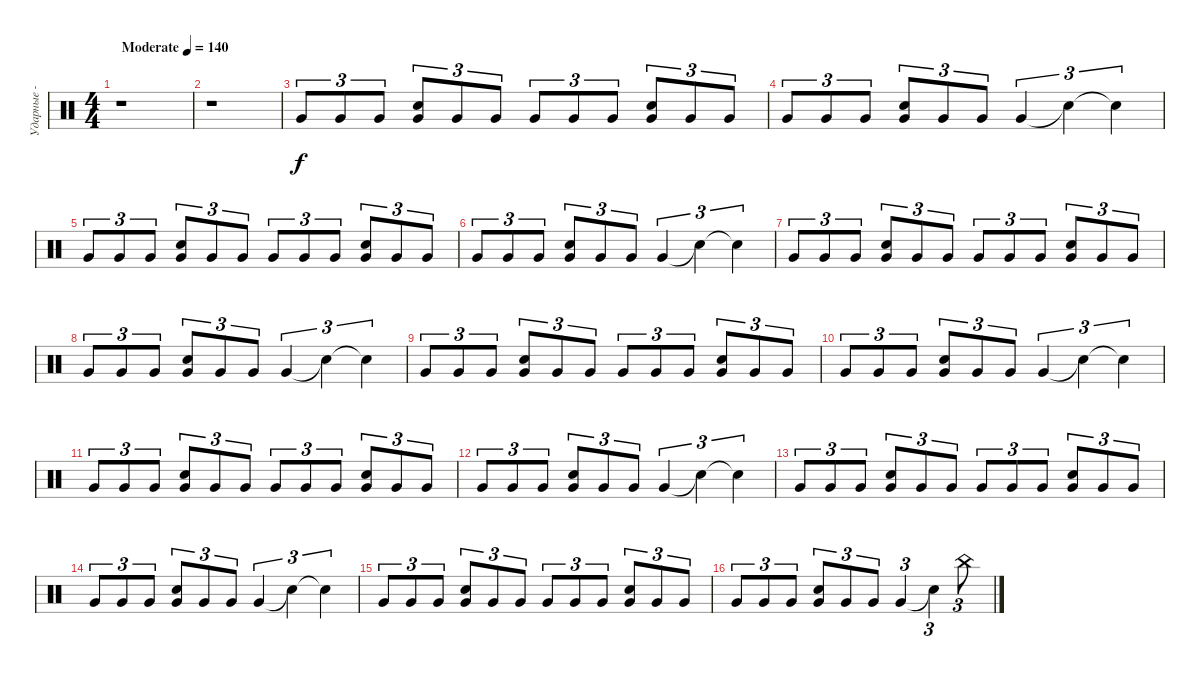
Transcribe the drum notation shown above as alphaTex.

\track ("Ударные - Ваня" "Ударные - ") {instrument percussion}
\staff {score}
\articulation defaults
\ts (4 4)
\tempo (140 "Moderate")
\clef neutral
\ks c
r.1{dy f} |
r.1 |
"Very Low Tom (hit)".8{tu (3 2)} "Very Low Tom (hit)".8{tu (3 2)} "Very Low Tom (hit)".8{tu (3 2)} ("Very Low Tom (hit)" "Snare (hit) 2").8{tu (3 2)} "Very Low Tom (hit)".8{tu (3 2)} "Very Low Tom (hit)".8{tu (3 2)} "Very Low Tom (hit)".8{tu (3 2)} "Very Low Tom (hit)".8{tu (3 2)} "Very Low Tom (hit)".8{tu (3 2)} ("Very Low Tom (hit)" "Snare (hit) 2").8{tu (3 2)} "Very Low Tom (hit)".8{tu (3 2)} "Very Low Tom (hit)".8{tu (3 2)} |
"Very Low Tom (hit)".8{tu (3 2)} "Very Low Tom (hit)".8{tu (3 2)} "Very Low Tom (hit)".8{tu (3 2)} ("Very Low Tom (hit)" "Snare (hit) 2").8{tu (3 2)} "Very Low Tom (hit)".8{tu (3 2)} "Very Low Tom (hit)".8{tu (3 2)} "Very Low Tom (hit)".4{tu (3 2)} "Snare (hit)"{t}.4{tu (3 2)} "Snare (hit)"{t}.4{tu (3 2)} |
"Very Low Tom (hit)".8{tu (3 2)} "Very Low Tom (hit)".8{tu (3 2)} "Very Low Tom (hit)".8{tu (3 2)} ("Very Low Tom (hit)" "Snare (hit) 2").8{tu (3 2)} "Very Low Tom (hit)".8{tu (3 2)} "Very Low Tom (hit)".8{tu (3 2)} "Very Low Tom (hit)".8{tu (3 2)} "Very Low Tom (hit)".8{tu (3 2)} "Very Low Tom (hit)".8{tu (3 2)} ("Very Low Tom (hit)" "Snare (hit) 2").8{tu (3 2)} "Very Low Tom (hit)".8{tu (3 2)} "Very Low Tom (hit)".8{tu (3 2)} |
"Very Low Tom (hit)".8{tu (3 2)} "Very Low Tom (hit)".8{tu (3 2)} "Very Low Tom (hit)".8{tu (3 2)} ("Very Low Tom (hit)" "Snare (hit) 2").8{tu (3 2)} "Very Low Tom (hit)".8{tu (3 2)} "Very Low Tom (hit)".8{tu (3 2)} "Very Low Tom (hit)".4{tu (3 2)} "Snare (hit)"{t}.4{tu (3 2)} "Snare (hit)"{t}.4{tu (3 2)} |
"Very Low Tom (hit)".8{tu (3 2)} "Very Low Tom (hit)".8{tu (3 2)} "Very Low Tom (hit)".8{tu (3 2)} ("Very Low Tom (hit)" "Snare (hit) 2").8{tu (3 2)} "Very Low Tom (hit)".8{tu (3 2)} "Very Low Tom (hit)".8{tu (3 2)} "Very Low Tom (hit)".8{tu (3 2)} "Very Low Tom (hit)".8{tu (3 2)} "Very Low Tom (hit)".8{tu (3 2)} ("Very Low Tom (hit)" "Snare (hit) 2").8{tu (3 2)} "Very Low Tom (hit)".8{tu (3 2)} "Very Low Tom (hit)".8{tu (3 2)} |
"Very Low Tom (hit)".8{tu (3 2)} "Very Low Tom (hit)".8{tu (3 2)} "Very Low Tom (hit)".8{tu (3 2)} ("Very Low Tom (hit)" "Snare (hit) 2").8{tu (3 2)} "Very Low Tom (hit)".8{tu (3 2)} "Very Low Tom (hit)".8{tu (3 2)} "Very Low Tom (hit)".4{tu (3 2)} "Snare (hit)"{t}.4{tu (3 2)} "Snare (hit)"{t}.4{tu (3 2)} |
"Very Low Tom (hit)".8{tu (3 2)} "Very Low Tom (hit)".8{tu (3 2)} "Very Low Tom (hit)".8{tu (3 2)} ("Very Low Tom (hit)" "Snare (hit) 2").8{tu (3 2)} "Very Low Tom (hit)".8{tu (3 2)} "Very Low Tom (hit)".8{tu (3 2)} "Very Low Tom (hit)".8{tu (3 2)} "Very Low Tom (hit)".8{tu (3 2)} "Very Low Tom (hit)".8{tu (3 2)} ("Very Low Tom (hit)" "Snare (hit) 2").8{tu (3 2)} "Very Low Tom (hit)".8{tu (3 2)} "Very Low Tom (hit)".8{tu (3 2)} |
"Very Low Tom (hit)".8{tu (3 2)} "Very Low Tom (hit)".8{tu (3 2)} "Very Low Tom (hit)".8{tu (3 2)} ("Very Low Tom (hit)" "Snare (hit) 2").8{tu (3 2)} "Very Low Tom (hit)".8{tu (3 2)} "Very Low Tom (hit)".8{tu (3 2)} "Very Low Tom (hit)".4{tu (3 2)} "Snare (hit)"{t}.4{tu (3 2)} "Snare (hit)"{t}.4{tu (3 2)} |
"Very Low Tom (hit)".8{tu (3 2)} "Very Low Tom (hit)".8{tu (3 2)} "Very Low Tom (hit)".8{tu (3 2)} ("Very Low Tom (hit)" "Snare (hit) 2").8{tu (3 2)} "Very Low Tom (hit)".8{tu (3 2)} "Very Low Tom (hit)".8{tu (3 2)} "Very Low Tom (hit)".8{tu (3 2)} "Very Low Tom (hit)".8{tu (3 2)} "Very Low Tom (hit)".8{tu (3 2)} ("Very Low Tom (hit)" "Snare (hit) 2").8{tu (3 2)} "Very Low Tom (hit)".8{tu (3 2)} "Very Low Tom (hit)".8{tu (3 2)} |
"Very Low Tom (hit)".8{tu (3 2)} "Very Low Tom (hit)".8{tu (3 2)} "Very Low Tom (hit)".8{tu (3 2)} ("Very Low Tom (hit)" "Snare (hit) 2").8{tu (3 2)} "Very Low Tom (hit)".8{tu (3 2)} "Very Low Tom (hit)".8{tu (3 2)} "Very Low Tom (hit)".4{tu (3 2)} "Snare (hit)"{t}.4{tu (3 2)} "Snare (hit)"{t}.4{tu (3 2)} |
"Very Low Tom (hit)".8{tu (3 2)} "Very Low Tom (hit)".8{tu (3 2)} "Very Low Tom (hit)".8{tu (3 2)} ("Very Low Tom (hit)" "Snare (hit) 2").8{tu (3 2)} "Very Low Tom (hit)".8{tu (3 2)} "Very Low Tom (hit)".8{tu (3 2)} "Very Low Tom (hit)".8{tu (3 2)} "Very Low Tom (hit)".8{tu (3 2)} "Very Low Tom (hit)".8{tu (3 2)} ("Very Low Tom (hit)" "Snare (hit) 2").8{tu (3 2)} "Very Low Tom (hit)".8{tu (3 2)} "Very Low Tom (hit)".8{tu (3 2)} |
"Very Low Tom (hit)".8{tu (3 2)} "Very Low Tom (hit)".8{tu (3 2)} "Very Low Tom (hit)".8{tu (3 2)} ("Very Low Tom (hit)" "Snare (hit) 2").8{tu (3 2)} "Very Low Tom (hit)".8{tu (3 2)} "Very Low Tom (hit)".8{tu (3 2)} "Very Low Tom (hit)".4{tu (3 2)} "Snare (hit)"{t}.4{tu (3 2)} "Snare (hit)"{t}.4{tu (3 2)} |
"Very Low Tom (hit)".8{tu (3 2)} "Very Low Tom (hit)".8{tu (3 2)} "Very Low Tom (hit)".8{tu (3 2)} ("Very Low Tom (hit)" "Snare (hit) 2").8{tu (3 2)} "Very Low Tom (hit)".8{tu (3 2)} "Very Low Tom (hit)".8{tu (3 2)} "Very Low Tom (hit)".8{tu (3 2)} "Very Low Tom (hit)".8{tu (3 2)} "Very Low Tom (hit)".8{tu (3 2)} ("Very Low Tom (hit)" "Snare (hit) 2").8{tu (3 2)} "Very Low Tom (hit)".8{tu (3 2)} "Very Low Tom (hit)".8{tu (3 2)} |
"Very Low Tom (hit)".8{tu (3 2)} "Very Low Tom (hit)".8{tu (3 2)} "Very Low Tom (hit)".8{tu (3 2)} ("Very Low Tom (hit)" "Snare (hit) 2").8{tu (3 2)} "Very Low Tom (hit)".8{tu (3 2)} "Very Low Tom (hit)".8{tu (3 2)} "Very Low Tom (hit)".4{tu (3 2)} "Snare (hit)"{t}.4{tu (3 2)} "China (hit)".8{tu (3 2)}
